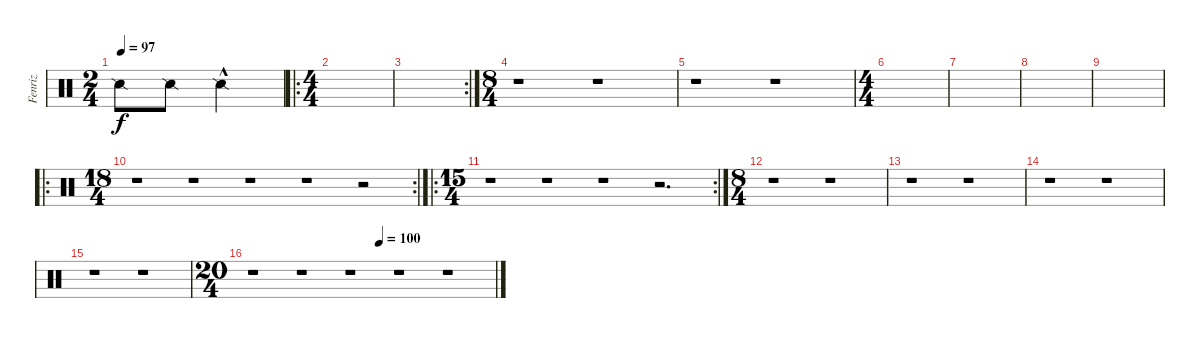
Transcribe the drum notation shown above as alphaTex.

\track ("Fenriz" "Fenriz") {instrument percussion}
\staff {score}
\articulation defaults
\ts (2 4)
\tempo 97
\clef neutral
\ks c "Snare (side stick) 2".8{dy f} "Snare (side stick) 2".8 "Snare (side stick) 2"{hac}.4
|
\ro
\ts (4 4)
|
\rc 2
|
\ts (8 4)
r.1 r.1 |
r.1 r.1 |
\ts (4 4)
|
|
|
|
\ro
\rc 2
\ts (18 4)
r.1 r.1 r.1 r.1 r.2 |
\ro
\rc 2
\ts (15 4)
r.1 r.1 r.1 r.2{d} |
\ts (8 4)
r.1 r.1 |
r.1 r.1 |
r.1 r.1 |
r.1 r.1 |
\ts (20 4)
\tempo (100 0.525)
r.1 r.1 r.1 r.1 r.1
